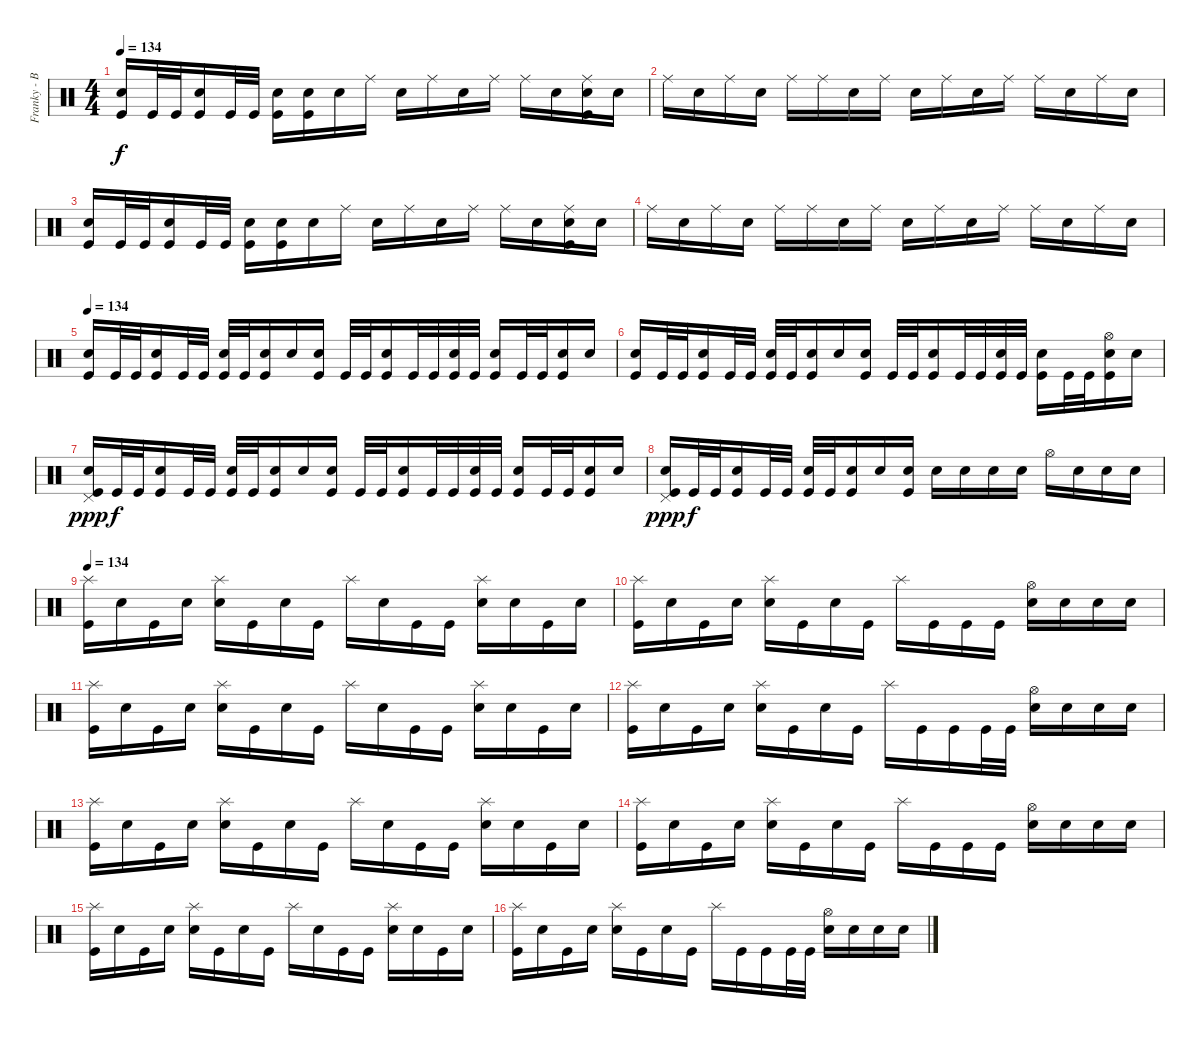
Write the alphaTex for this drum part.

\track ("Franky - Batterie" "Franky - B") {instrument percussion}
\staff {score}
\articulation defaults
\ts (4 4)
\tempo 134
\clef neutral
\ks c
("Electric Snare (hit)" "Kick (hit)").16{dy f} "Kick (hit)".32 "Kick (hit)".32 ("Electric Snare (hit)" "Kick (hit)").16 "Kick (hit)".32 "Kick (hit)".32 ("Electric Snare (hit)" "Kick (hit)").16 ("Electric Snare (hit)" "Kick (hit)").16 "Snare (hit)".16 "Ride (middle)".16 "Snare (hit)".16 "Ride (middle)".16 "Snare (hit)".16 "Ride (middle)".16 "Ride (middle)".16 "Snare (hit)".16 ("Ride (middle)" "Electric Snare (hit)" "Kick (hit)").16 "Snare (hit)".16 |
"Ride (middle)".16 "Snare (hit)".16 "Ride (middle)".16 "Snare (hit)".16 "Ride (middle)".16 "Ride (middle)".16 "Snare (hit)".16 "Ride (middle)".16 "Snare (hit)".16 "Ride (middle)".16 "Snare (hit)".16 "Ride (middle)".16 "Ride (middle)".16 "Snare (hit)".16 "Ride (middle)".16 "Snare (hit)".16 |
("Electric Snare (hit)" "Kick (hit)").16 "Kick (hit)".32 "Kick (hit)".32 ("Electric Snare (hit)" "Kick (hit)").16 "Kick (hit)".32 "Kick (hit)".32 ("Electric Snare (hit)" "Kick (hit)").16 ("Electric Snare (hit)" "Kick (hit)").16 "Snare (hit)".16 "Ride (middle)".16 "Snare (hit)".16 "Ride (middle)".16 "Snare (hit)".16 "Ride (middle)".16 "Ride (middle)".16 "Snare (hit)".16 ("Ride (middle)" "Electric Snare (hit)" "Kick (hit)").16 "Snare (hit)".16 |
"Ride (middle)".16 "Snare (hit)".16 "Ride (middle)".16 "Snare (hit)".16 "Ride (middle)".16 "Ride (middle)".16 "Snare (hit)".16 "Ride (middle)".16 "Snare (hit)".16 "Ride (middle)".16 "Snare (hit)".16 "Ride (middle)".16 "Ride (middle)".16 "Snare (hit)".16 "Ride (middle)".16 "Snare (hit)".16 |
\section ("" "")
\tempo 134
("Electric Snare (hit)" "Kick (hit)").16{volume 16 balance 8} "Kick (hit)".32 "Kick (hit)".32 ("Electric Snare (hit)" "Kick (hit)").16 "Kick (hit)".32 "Kick (hit)".32 ("Electric Snare (hit)" "Kick (hit)").32 "Kick (hit)".32 ("Electric Snare (hit)" "Kick (hit)").16 "Snare (hit)".16 ("Electric Snare (hit)" "Kick (hit)").16 "Kick (hit)".32 "Kick (hit)".32 ("Electric Snare (hit)" "Kick (hit)").16 "Kick (hit)".32 "Kick (hit)".32 ("Electric Snare (hit)" "Kick (hit)").32 "Kick (hit)".32 ("Electric Snare (hit)" "Kick (hit)").16 "Kick (hit)".32 "Kick (hit)".32 ("Electric Snare (hit)" "Kick (hit)").16 "Snare (hit)".16 |
("Electric Snare (hit)" "Kick (hit)").16 "Kick (hit)".32 "Kick (hit)".32 ("Electric Snare (hit)" "Kick (hit)").16 "Kick (hit)".32 "Kick (hit)".32 ("Electric Snare (hit)" "Kick (hit)").32 "Kick (hit)".32 ("Electric Snare (hit)" "Kick (hit)").16 "Snare (hit)".16 ("Electric Snare (hit)" "Kick (hit)").16 "Kick (hit)".32 "Kick (hit)".32 ("Electric Snare (hit)" "Kick (hit)").16 "Kick (hit)".32 "Kick (hit)".32 ("Electric Snare (hit)" "Kick (hit)").32 "Kick (hit)".32 ("Electric Snare (hit)" "Kick (hit)").16 "Kick (hit)".32 "Kick (hit)".32 ("Hi-Hat (open)" "Electric Snare (hit)" "Kick (hit)").16 "Snare (hit)".16 |
("Pedal Hi-Hat (hit)" "Electric Snare (hit)" "Kick (hit)").16{dy ppp} "Kick (hit)".32{dy f} "Kick (hit)".32 ("Electric Snare (hit)" "Kick (hit)").16 "Kick (hit)".32 "Kick (hit)".32 ("Electric Snare (hit)" "Kick (hit)").32 "Kick (hit)".32 ("Electric Snare (hit)" "Kick (hit)").16 "Snare (hit)".16 ("Electric Snare (hit)" "Kick (hit)").16 "Kick (hit)".32 "Kick (hit)".32 ("Electric Snare (hit)" "Kick (hit)").16 "Kick (hit)".32 "Kick (hit)".32 ("Electric Snare (hit)" "Kick (hit)").32 "Kick (hit)".32 ("Electric Snare (hit)" "Kick (hit)").16 "Kick (hit)".32 "Kick (hit)".32 ("Electric Snare (hit)" "Kick (hit)").16 "Snare (hit)".16 |
("Pedal Hi-Hat (hit)" "Electric Snare (hit)" "Kick (hit)").16{dy ppp} "Kick (hit)".32{dy f} "Kick (hit)".32 ("Electric Snare (hit)" "Kick (hit)").16 "Kick (hit)".32 "Kick (hit)".32 ("Electric Snare (hit)" "Kick (hit)").32 "Kick (hit)".32 ("Electric Snare (hit)" "Kick (hit)").16 "Snare (hit)".16 ("Electric Snare (hit)" "Kick (hit)").16 "Snare (hit)".16 "Snare (hit)".16 "Snare (hit)".16 "Snare (hit)".16 "Hi-Hat (open)".16 "Snare (hit)".16 "Snare (hit)".16 "Snare (hit)".16 |
\section ("" "")
\tempo 134
("Splash (hit)" "Kick (hit)").16{volume 16 balance 8} "Snare (hit)".16 "Kick (hit)".16 "Snare (hit)".16 ("Splash (hit)" "Electric Snare (hit)").16 "Kick (hit)".16 "Snare (hit)".16 "Kick (hit)".16 "Splash (hit)".16 "Electric Snare (hit)".16 "Kick (hit)".16 "Kick (hit)".16 ("Splash (hit)" "Electric Snare (hit)").16 "Snare (hit)".16 "Kick (hit)".16 "Snare (hit)".16 |
("Splash (hit)" "Kick (hit)").16 "Snare (hit)".16 "Kick (hit)".16 "Snare (hit)".16 ("Splash (hit)" "Electric Snare (hit)").16 "Kick (hit)".16 "Snare (hit)".16 "Kick (hit)".16 "Splash (hit)".16 "Kick (hit)".16 "Kick (hit)".16 "Kick (hit)".16 ("Hi-Hat (open)" "Electric Snare (hit)").16 "Snare (hit)".16 "Electric Snare (hit)".16 "Electric Snare (hit)".16 |
("Splash (hit)" "Kick (hit)").16 "Snare (hit)".16 "Kick (hit)".16 "Snare (hit)".16 ("Splash (hit)" "Electric Snare (hit)").16 "Kick (hit)".16 "Snare (hit)".16 "Kick (hit)".16 "Splash (hit)".16 "Electric Snare (hit)".16 "Kick (hit)".16 "Kick (hit)".16 ("Splash (hit)" "Electric Snare (hit)").16 "Snare (hit)".16 "Kick (hit)".16 "Snare (hit)".16 |
("Splash (hit)" "Kick (hit)").16 "Snare (hit)".16 "Kick (hit)".16 "Snare (hit)".16 ("Splash (hit)" "Electric Snare (hit)").16 "Kick (hit)".16 "Snare (hit)".16 "Kick (hit)".16 "Splash (hit)".16 "Kick (hit)".16 "Kick (hit)".16 "Kick (hit)".32 "Kick (hit)".32 ("Hi-Hat (open)" "Electric Snare (hit)").16 "Snare (hit)".16 "Snare (hit)".16 "Snare (hit)".16 |
("Splash (hit)" "Kick (hit)").16 "Snare (hit)".16 "Kick (hit)".16 "Snare (hit)".16 ("Splash (hit)" "Electric Snare (hit)").16 "Kick (hit)".16 "Snare (hit)".16 "Kick (hit)".16 "Splash (hit)".16 "Electric Snare (hit)".16 "Kick (hit)".16 "Kick (hit)".16 ("Splash (hit)" "Electric Snare (hit)").16 "Snare (hit)".16 "Kick (hit)".16 "Snare (hit)".16 |
("Splash (hit)" "Kick (hit)").16 "Snare (hit)".16 "Kick (hit)".16 "Snare (hit)".16 ("Splash (hit)" "Electric Snare (hit)").16 "Kick (hit)".16 "Snare (hit)".16 "Kick (hit)".16 "Splash (hit)".16 "Kick (hit)".16 "Kick (hit)".16 "Kick (hit)".16 ("Hi-Hat (open)" "Electric Snare (hit)").16 "Snare (hit)".16 "Electric Snare (hit)".16 "Electric Snare (hit)".16 |
("Splash (hit)" "Kick (hit)").16 "Snare (hit)".16 "Kick (hit)".16 "Snare (hit)".16 ("Splash (hit)" "Electric Snare (hit)").16 "Kick (hit)".16 "Snare (hit)".16 "Kick (hit)".16 "Splash (hit)".16 "Electric Snare (hit)".16 "Kick (hit)".16 "Kick (hit)".16 ("Splash (hit)" "Electric Snare (hit)").16 "Snare (hit)".16 "Kick (hit)".16 "Snare (hit)".16 |
("Splash (hit)" "Kick (hit)").16 "Snare (hit)".16 "Kick (hit)".16 "Snare (hit)".16 ("Splash (hit)" "Electric Snare (hit)").16 "Kick (hit)".16 "Snare (hit)".16 "Kick (hit)".16 "Splash (hit)".16 "Kick (hit)".16 "Kick (hit)".16 "Kick (hit)".32 "Kick (hit)".32 ("Hi-Hat (open)" "Electric Snare (hit)").16 "Snare (hit)".16 "Snare (hit)".16 "Snare (hit)".16
